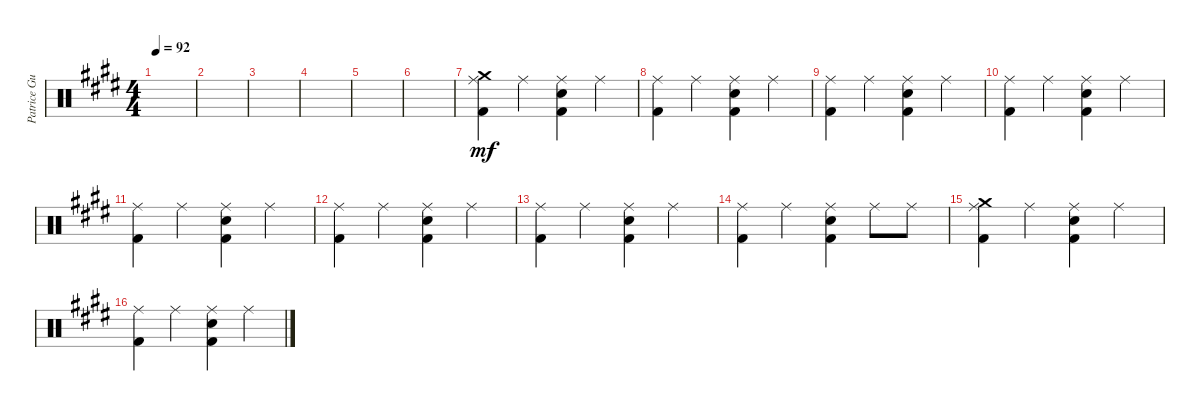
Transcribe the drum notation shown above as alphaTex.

\track ("Patrice Guers" "Patrice Gu") {instrument percussion}
\staff {score}
\articulation defaults
\ts (4 4)
\tempo 92
\clef neutral
\ks c#minor
|
|
|
|
|
|
("Ride (middle)" "Kick (hit) 2" "Crash medium (hit)").4{dy mf} "Ride (middle)".4 ("Ride (middle)" "Kick (hit) 2" "Snare (hit) 2").4 "Ride (middle)".4 |
("Ride (middle)" "Kick (hit) 2").4 "Ride (middle)".4 ("Ride (middle)" "Kick (hit) 2" "Snare (hit) 2").4 "Ride (middle)".4 |
("Ride (middle)" "Kick (hit) 2").4 "Ride (middle)".4 ("Ride (middle)" "Kick (hit) 2" "Snare (hit) 2").4 "Ride (middle)".4 |
("Ride (middle)" "Kick (hit) 2").4 "Ride (middle)".4 ("Ride (middle)" "Kick (hit) 2" "Snare (hit) 2").4 "Ride (middle)".4 |
("Ride (middle)" "Kick (hit) 2").4 "Ride (middle)".4 ("Ride (middle)" "Kick (hit) 2" "Snare (hit) 2").4 "Ride (middle)".4 |
("Ride (middle)" "Kick (hit) 2").4 "Ride (middle)".4 ("Ride (middle)" "Kick (hit) 2" "Snare (hit) 2").4 "Ride (middle)".4 |
("Ride (middle)" "Kick (hit) 2").4 "Ride (middle)".4 ("Ride (middle)" "Kick (hit) 2" "Snare (hit) 2").4 "Ride (middle)".4 |
("Ride (middle)" "Kick (hit) 2").4 "Ride (middle)".4 ("Ride (middle)" "Kick (hit) 2" "Snare (hit) 2").4 "Ride (middle)".8 "Ride (middle)".8 |
("Ride (middle)" "Kick (hit) 2" "Crash medium (hit)").4 "Ride (middle)".4 ("Ride (middle)" "Kick (hit) 2" "Snare (hit) 2").4 "Ride (middle)".4 |
("Ride (middle)" "Kick (hit) 2").4 "Ride (middle)".4 ("Ride (middle)" "Kick (hit) 2" "Snare (hit) 2").4 "Ride (middle)".4
